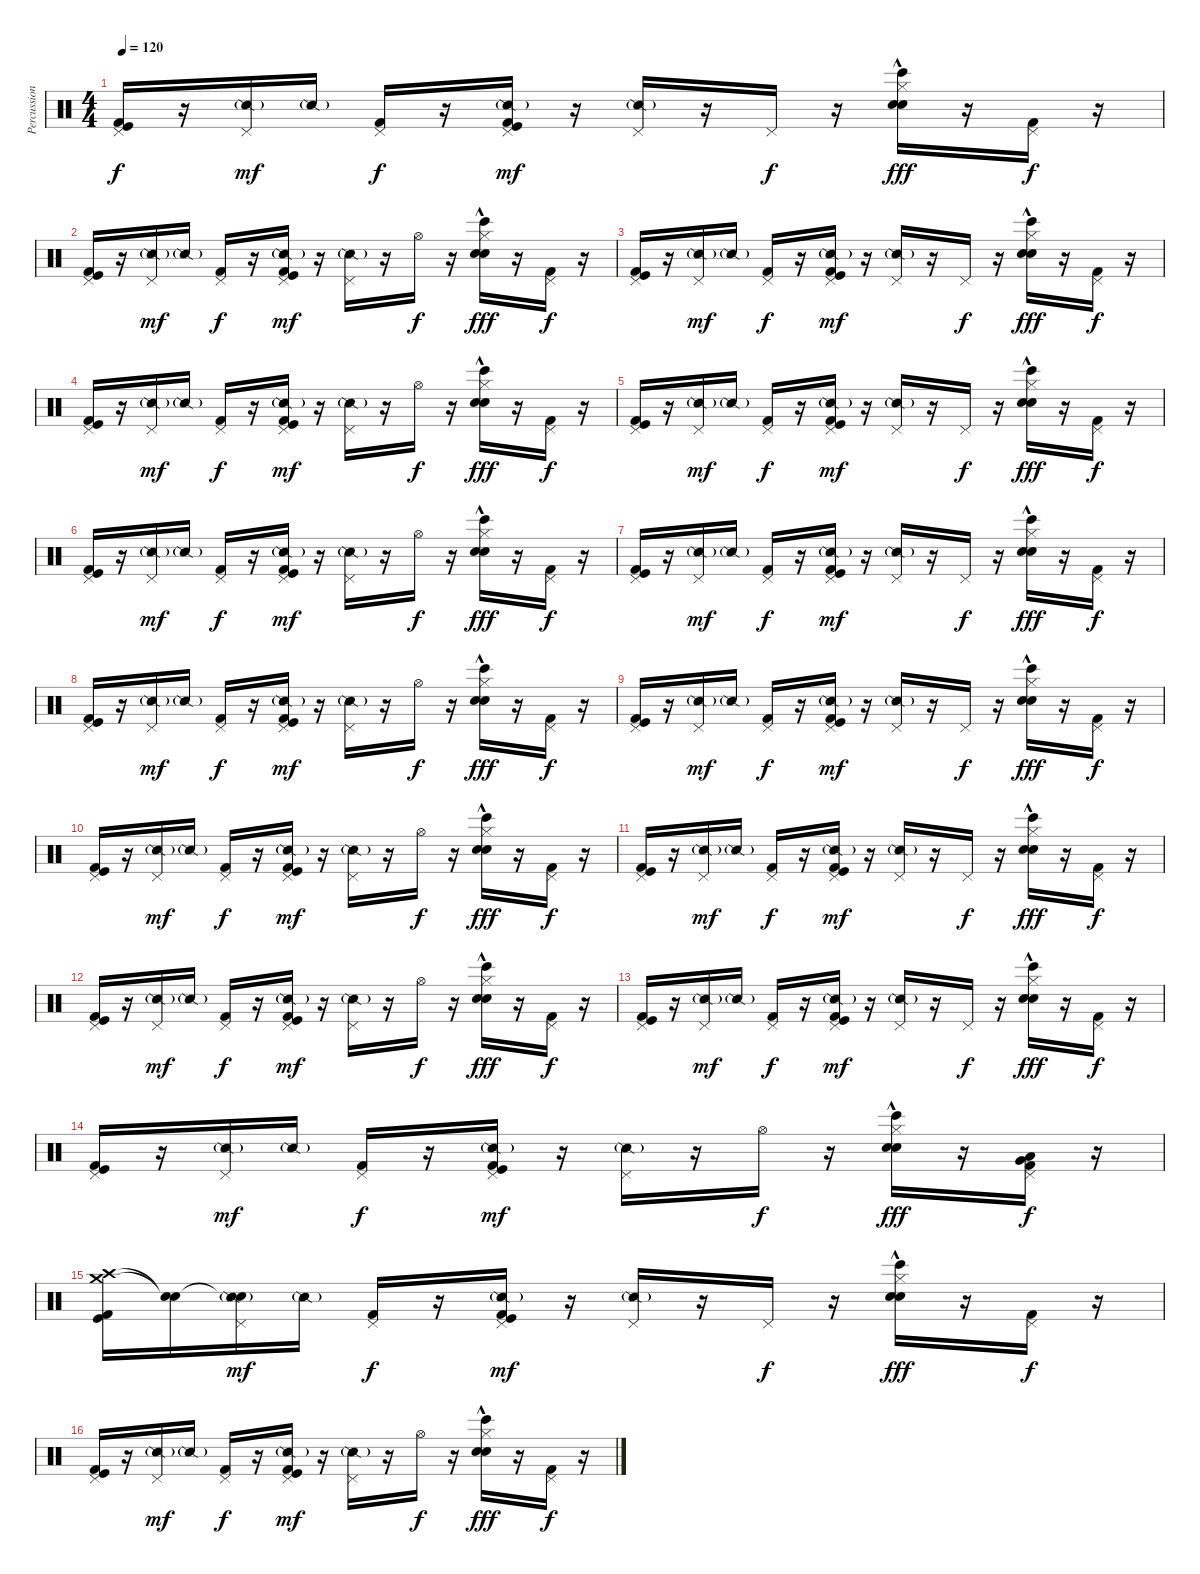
\track ("Percussion" "Percussion") {instrument percussion}
\staff {score}
\articulation defaults
\ts (4 4)
\tempo 120
\clef neutral
\ks c
("Pedal Hi-Hat (hit)" "Kick (hit) 2" "Kick (hit)").16{dy f} r.16 ("Pedal Hi-Hat (hit)" "Snare (side stick) 2"{g}).16{dy mf} "Snare (side stick) 2"{g}.16 ("Pedal Hi-Hat (hit)" "Kick (hit) 2").16{dy f} r.16 ("Pedal Hi-Hat (hit)" "Snare (side stick) 2"{g} "Kick (hit) 2" "Kick (hit)").16{dy mf} r.16 ("Pedal Hi-Hat (hit)" "Snare (side stick) 2"{g}).16 r.16 "Pedal Hi-Hat (hit)".16{dy f} r.16 ("Hi-Hat (closed)"{hac} "Hand Clap (hit)" "Bongo High (hit)" "Electric Snare (hit)").16{dy fff} r.16 ("Pedal Hi-Hat (hit)" "Kick (hit) 2").16{dy f} r.16 |
("Pedal Hi-Hat (hit)" "Kick (hit) 2" "Kick (hit)").16 r.16 ("Pedal Hi-Hat (hit)" "Snare (side stick) 2"{g}).16{dy mf} "Snare (side stick) 2"{g}.16 ("Pedal Hi-Hat (hit)" "Kick (hit) 2").16{dy f} r.16 ("Pedal Hi-Hat (hit)" "Snare (side stick) 2"{g} "Kick (hit) 2" "Kick (hit)").16{dy mf} r.16 ("Pedal Hi-Hat (hit)" "Snare (side stick) 2"{g}).16 r.16 "Hi-Hat (open)".16{dy f} r.16 ("Hi-Hat (closed)"{hac} "Hand Clap (hit)" "Bongo High (hit)" "Electric Snare (hit)").16{dy fff} r.16 ("Pedal Hi-Hat (hit)" "Kick (hit) 2").16{dy f} r.16 |
("Pedal Hi-Hat (hit)" "Kick (hit) 2" "Kick (hit)").16 r.16 ("Pedal Hi-Hat (hit)" "Snare (side stick) 2"{g}).16{dy mf} "Snare (side stick) 2"{g}.16 ("Pedal Hi-Hat (hit)" "Kick (hit) 2").16{dy f} r.16 ("Pedal Hi-Hat (hit)" "Snare (side stick) 2"{g} "Kick (hit) 2" "Kick (hit)").16{dy mf} r.16 ("Pedal Hi-Hat (hit)" "Snare (side stick) 2"{g}).16 r.16 "Pedal Hi-Hat (hit)".16{dy f} r.16 ("Hi-Hat (closed)"{hac} "Hand Clap (hit)" "Bongo High (hit)" "Electric Snare (hit)").16{dy fff} r.16 ("Pedal Hi-Hat (hit)" "Kick (hit) 2").16{dy f} r.16 |
("Pedal Hi-Hat (hit)" "Kick (hit) 2" "Kick (hit)").16 r.16 ("Pedal Hi-Hat (hit)" "Snare (side stick) 2"{g}).16{dy mf} "Snare (side stick) 2"{g}.16 ("Pedal Hi-Hat (hit)" "Kick (hit) 2").16{dy f} r.16 ("Pedal Hi-Hat (hit)" "Snare (side stick) 2"{g} "Kick (hit) 2" "Kick (hit)").16{dy mf} r.16 ("Pedal Hi-Hat (hit)" "Snare (side stick) 2"{g}).16 r.16 "Hi-Hat (open)".16{dy f} r.16 ("Hi-Hat (closed)"{hac} "Hand Clap (hit)" "Bongo High (hit)" "Electric Snare (hit)").16{dy fff} r.16 ("Pedal Hi-Hat (hit)" "Kick (hit) 2").16{dy f} r.16 |
("Pedal Hi-Hat (hit)" "Kick (hit) 2" "Kick (hit)").16 r.16 ("Pedal Hi-Hat (hit)" "Snare (side stick) 2"{g}).16{dy mf} "Snare (side stick) 2"{g}.16 ("Pedal Hi-Hat (hit)" "Kick (hit) 2").16{dy f} r.16 ("Pedal Hi-Hat (hit)" "Snare (side stick) 2"{g} "Kick (hit) 2" "Kick (hit)").16{dy mf} r.16 ("Pedal Hi-Hat (hit)" "Snare (side stick) 2"{g}).16 r.16 "Pedal Hi-Hat (hit)".16{dy f} r.16 ("Hi-Hat (closed)"{hac} "Hand Clap (hit)" "Bongo High (hit)" "Electric Snare (hit)").16{dy fff} r.16 ("Pedal Hi-Hat (hit)" "Kick (hit) 2").16{dy f} r.16 |
("Pedal Hi-Hat (hit)" "Kick (hit) 2" "Kick (hit)").16 r.16 ("Pedal Hi-Hat (hit)" "Snare (side stick) 2"{g}).16{dy mf} "Snare (side stick) 2"{g}.16 ("Pedal Hi-Hat (hit)" "Kick (hit) 2").16{dy f} r.16 ("Pedal Hi-Hat (hit)" "Snare (side stick) 2"{g} "Kick (hit) 2" "Kick (hit)").16{dy mf} r.16 ("Pedal Hi-Hat (hit)" "Snare (side stick) 2"{g}).16 r.16 "Hi-Hat (open)".16{dy f} r.16 ("Hi-Hat (closed)"{hac} "Hand Clap (hit)" "Bongo High (hit)" "Electric Snare (hit)").16{dy fff} r.16 ("Pedal Hi-Hat (hit)" "Kick (hit) 2").16{dy f} r.16 |
("Pedal Hi-Hat (hit)" "Kick (hit) 2" "Kick (hit)").16 r.16 ("Pedal Hi-Hat (hit)" "Snare (side stick) 2"{g}).16{dy mf} "Snare (side stick) 2"{g}.16 ("Pedal Hi-Hat (hit)" "Kick (hit) 2").16{dy f} r.16 ("Pedal Hi-Hat (hit)" "Snare (side stick) 2"{g} "Kick (hit) 2" "Kick (hit)").16{dy mf} r.16 ("Pedal Hi-Hat (hit)" "Snare (side stick) 2"{g}).16 r.16 "Pedal Hi-Hat (hit)".16{dy f} r.16 ("Hi-Hat (closed)"{hac} "Hand Clap (hit)" "Bongo High (hit)" "Electric Snare (hit)").16{dy fff} r.16 ("Pedal Hi-Hat (hit)" "Kick (hit) 2").16{dy f} r.16 |
("Pedal Hi-Hat (hit)" "Kick (hit) 2" "Kick (hit)").16 r.16 ("Pedal Hi-Hat (hit)" "Snare (side stick) 2"{g}).16{dy mf} "Snare (side stick) 2"{g}.16 ("Pedal Hi-Hat (hit)" "Kick (hit) 2").16{dy f} r.16 ("Pedal Hi-Hat (hit)" "Snare (side stick) 2"{g} "Kick (hit) 2" "Kick (hit)").16{dy mf} r.16 ("Pedal Hi-Hat (hit)" "Snare (side stick) 2"{g}).16 r.16 "Hi-Hat (open)".16{dy f} r.16 ("Hi-Hat (closed)"{hac} "Hand Clap (hit)" "Bongo High (hit)" "Electric Snare (hit)").16{dy fff} r.16 ("Pedal Hi-Hat (hit)" "Kick (hit) 2").16{dy f} r.16 |
("Pedal Hi-Hat (hit)" "Kick (hit) 2" "Kick (hit)").16 r.16 ("Pedal Hi-Hat (hit)" "Snare (side stick) 2"{g}).16{dy mf} "Snare (side stick) 2"{g}.16 ("Pedal Hi-Hat (hit)" "Kick (hit) 2").16{dy f} r.16 ("Pedal Hi-Hat (hit)" "Snare (side stick) 2"{g} "Kick (hit) 2" "Kick (hit)").16{dy mf} r.16 ("Pedal Hi-Hat (hit)" "Snare (side stick) 2"{g}).16 r.16 "Pedal Hi-Hat (hit)".16{dy f} r.16 ("Hi-Hat (closed)"{hac} "Hand Clap (hit)" "Bongo High (hit)" "Electric Snare (hit)").16{dy fff} r.16 ("Pedal Hi-Hat (hit)" "Kick (hit) 2").16{dy f} r.16 |
("Pedal Hi-Hat (hit)" "Kick (hit) 2" "Kick (hit)").16 r.16 ("Pedal Hi-Hat (hit)" "Snare (side stick) 2"{g}).16{dy mf} "Snare (side stick) 2"{g}.16 ("Pedal Hi-Hat (hit)" "Kick (hit) 2").16{dy f} r.16 ("Pedal Hi-Hat (hit)" "Snare (side stick) 2"{g} "Kick (hit) 2" "Kick (hit)").16{dy mf} r.16 ("Pedal Hi-Hat (hit)" "Snare (side stick) 2"{g}).16 r.16 "Hi-Hat (open)".16{dy f} r.16 ("Hi-Hat (closed)"{hac} "Hand Clap (hit)" "Bongo High (hit)" "Electric Snare (hit)").16{dy fff} r.16 ("Pedal Hi-Hat (hit)" "Kick (hit) 2").16{dy f} r.16 |
("Pedal Hi-Hat (hit)" "Kick (hit) 2" "Kick (hit)").16 r.16 ("Pedal Hi-Hat (hit)" "Snare (side stick) 2"{g}).16{dy mf} "Snare (side stick) 2"{g}.16 ("Pedal Hi-Hat (hit)" "Kick (hit) 2").16{dy f} r.16 ("Pedal Hi-Hat (hit)" "Snare (side stick) 2"{g} "Kick (hit) 2" "Kick (hit)").16{dy mf} r.16 ("Pedal Hi-Hat (hit)" "Snare (side stick) 2"{g}).16 r.16 "Pedal Hi-Hat (hit)".16{dy f} r.16 ("Hi-Hat (closed)"{hac} "Hand Clap (hit)" "Bongo High (hit)" "Electric Snare (hit)").16{dy fff} r.16 ("Pedal Hi-Hat (hit)" "Kick (hit) 2").16{dy f} r.16 |
("Pedal Hi-Hat (hit)" "Kick (hit) 2" "Kick (hit)").16 r.16 ("Pedal Hi-Hat (hit)" "Snare (side stick) 2"{g}).16{dy mf} "Snare (side stick) 2"{g}.16 ("Pedal Hi-Hat (hit)" "Kick (hit) 2").16{dy f} r.16 ("Pedal Hi-Hat (hit)" "Snare (side stick) 2"{g} "Kick (hit) 2" "Kick (hit)").16{dy mf} r.16 ("Pedal Hi-Hat (hit)" "Snare (side stick) 2"{g}).16 r.16 "Hi-Hat (open)".16{dy f} r.16 ("Hi-Hat (closed)"{hac} "Hand Clap (hit)" "Bongo High (hit)" "Electric Snare (hit)").16{dy fff} r.16 ("Pedal Hi-Hat (hit)" "Kick (hit) 2").16{dy f} r.16 |
("Pedal Hi-Hat (hit)" "Kick (hit) 2" "Kick (hit)").16 r.16 ("Pedal Hi-Hat (hit)" "Snare (side stick) 2"{g}).16{dy mf} "Snare (side stick) 2"{g}.16 ("Pedal Hi-Hat (hit)" "Kick (hit) 2").16{dy f} r.16 ("Pedal Hi-Hat (hit)" "Snare (side stick) 2"{g} "Kick (hit) 2" "Kick (hit)").16{dy mf} r.16 ("Pedal Hi-Hat (hit)" "Snare (side stick) 2"{g}).16 r.16 "Pedal Hi-Hat (hit)".16{dy f} r.16 ("Hi-Hat (closed)"{hac} "Hand Clap (hit)" "Bongo High (hit)" "Electric Snare (hit)").16{dy fff} r.16 ("Pedal Hi-Hat (hit)" "Kick (hit) 2").16{dy f} r.16 |
("Pedal Hi-Hat (hit)" "Kick (hit) 2" "Kick (hit)").16 r.16 ("Pedal Hi-Hat (hit)" "Snare (side stick) 2"{g}).16{dy mf} "Snare (side stick) 2"{g}.16 ("Pedal Hi-Hat (hit)" "Kick (hit) 2").16{dy f} r.16 ("Pedal Hi-Hat (hit)" "Snare (side stick) 2"{g} "Kick (hit) 2" "Kick (hit)").16{dy mf} r.16 ("Pedal Hi-Hat (hit)" "Snare (side stick) 2"{g}).16 r.16 "Hi-Hat (open)".16{dy f} r.16 ("Hi-Hat (closed)"{hac} "Hand Clap (hit)" "Bongo High (hit)" "Electric Snare (hit)").16{dy fff} r.16 ("Pedal Hi-Hat (hit)" "Very Low Tom (hit)" "Low Tom (hit)" "Kick (hit) 2").16{dy f} r.16 |
("Crash high (hit)" "Crash medium (hit)" "Kick (hit) 2" "Kick (hit)").16 ("Snare (hit)"{t} "Snare (hit)"{t}).16 ("Pedal Hi-Hat (hit)" "Snare (hit)"{t} "Snare (side stick) 2"{g}).16{dy mf} "Snare (side stick) 2"{g}.16 ("Pedal Hi-Hat (hit)" "Kick (hit) 2").16{dy f} r.16 ("Pedal Hi-Hat (hit)" "Snare (side stick) 2"{g} "Kick (hit) 2" "Kick (hit)").16{dy mf} r.16 ("Pedal Hi-Hat (hit)" "Snare (side stick) 2"{g}).16 r.16 "Pedal Hi-Hat (hit)".16{dy f} r.16 ("Hi-Hat (closed)"{hac} "Hand Clap (hit)" "Bongo High (hit)" "Electric Snare (hit)").16{dy fff} r.16 ("Pedal Hi-Hat (hit)" "Kick (hit) 2").16{dy f} r.16 |
("Pedal Hi-Hat (hit)" "Kick (hit) 2" "Kick (hit)").16 r.16 ("Pedal Hi-Hat (hit)" "Snare (side stick) 2"{g}).16{dy mf} "Snare (side stick) 2"{g}.16 ("Pedal Hi-Hat (hit)" "Kick (hit) 2").16{dy f} r.16 ("Pedal Hi-Hat (hit)" "Snare (side stick) 2"{g} "Kick (hit) 2" "Kick (hit)").16{dy mf} r.16 ("Pedal Hi-Hat (hit)" "Snare (side stick) 2"{g}).16 r.16 "Hi-Hat (open)".16{dy f} r.16 ("Hi-Hat (closed)"{hac} "Hand Clap (hit)" "Bongo High (hit)" "Electric Snare (hit)").16{dy fff} r.16 ("Pedal Hi-Hat (hit)" "Kick (hit) 2").16{dy f} r.16
